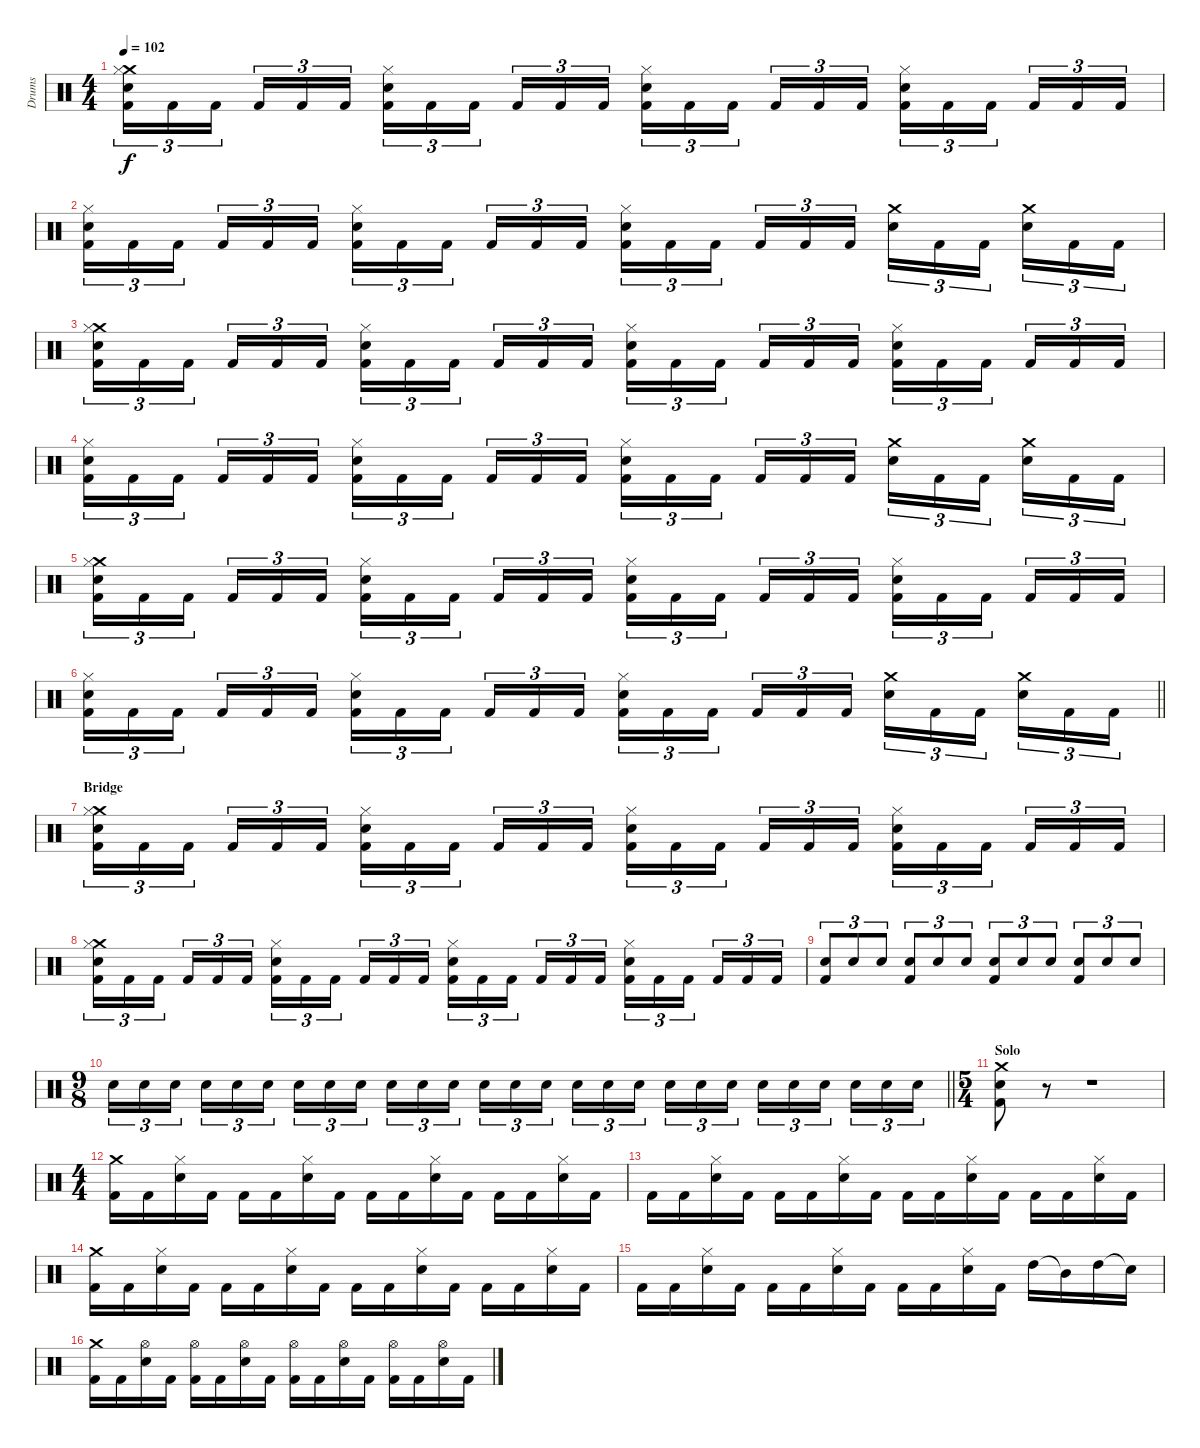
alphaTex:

\track ("Drums" "Drums") {instrument percussion}
\staff {score}
\articulation defaults
\ts (4 4)
\tempo 102
\clef neutral
\ks c
("Crash medium (hit)" "Hi-Hat (closed)" "Snare (hit) 2" "Kick (hit) 2").16{tu (3 2) dy f} "Kick (hit) 2".16{tu (3 2)} "Kick (hit) 2".16{tu (3 2) beam splitsecondary} "Kick (hit) 2".16{tu (3 2)} "Kick (hit) 2".16{tu (3 2)} "Kick (hit) 2".16{tu (3 2)} ("Hi-Hat (closed)" "Snare (hit) 2" "Kick (hit) 2").16{tu (3 2)} "Kick (hit) 2".16{tu (3 2)} "Kick (hit) 2".16{tu (3 2) beam splitsecondary} "Kick (hit) 2".16{tu (3 2)} "Kick (hit) 2".16{tu (3 2)} "Kick (hit) 2".16{tu (3 2)} ("Hi-Hat (closed)" "Snare (hit) 2" "Kick (hit) 2").16{tu (3 2)} "Kick (hit) 2".16{tu (3 2)} "Kick (hit) 2".16{tu (3 2) beam splitsecondary} "Kick (hit) 2".16{tu (3 2)} "Kick (hit) 2".16{tu (3 2)} "Kick (hit) 2".16{tu (3 2)} ("Hi-Hat (closed)" "Snare (hit) 2" "Kick (hit) 2").16{tu (3 2)} "Kick (hit) 2".16{tu (3 2)} "Kick (hit) 2".16{tu (3 2) beam splitsecondary} "Kick (hit) 2".16{tu (3 2)} "Kick (hit) 2".16{tu (3 2)} "Kick (hit) 2".16{tu (3 2)} |
("Hi-Hat (closed)" "Snare (hit) 2" "Kick (hit) 2").16{tu (3 2)} "Kick (hit) 2".16{tu (3 2)} "Kick (hit) 2".16{tu (3 2) beam splitsecondary} "Kick (hit) 2".16{tu (3 2)} "Kick (hit) 2".16{tu (3 2)} "Kick (hit) 2".16{tu (3 2)} ("Hi-Hat (closed)" "Snare (hit) 2" "Kick (hit) 2").16{tu (3 2)} "Kick (hit) 2".16{tu (3 2)} "Kick (hit) 2".16{tu (3 2) beam splitsecondary} "Kick (hit) 2".16{tu (3 2)} "Kick (hit) 2".16{tu (3 2)} "Kick (hit) 2".16{tu (3 2)} ("Hi-Hat (closed)" "Snare (hit) 2" "Kick (hit) 2").16{tu (3 2)} "Kick (hit) 2".16{tu (3 2)} "Kick (hit) 2".16{tu (3 2) beam splitsecondary} "Kick (hit) 2".16{tu (3 2)} "Kick (hit) 2".16{tu (3 2)} "Kick (hit) 2".16{tu (3 2)} ("Crash medium (hit)" "Snare (hit) 2").16{tu (3 2)} "Kick (hit) 2".16{tu (3 2)} "Kick (hit) 2".16{tu (3 2) beam splitsecondary} ("Crash medium (hit)" "Snare (hit) 2").16{tu (3 2)} "Kick (hit) 2".16{tu (3 2)} "Kick (hit) 2".16{tu (3 2)} |
("Crash medium (hit)" "Hi-Hat (closed)" "Snare (hit) 2" "Kick (hit) 2").16{tu (3 2)} "Kick (hit) 2".16{tu (3 2)} "Kick (hit) 2".16{tu (3 2) beam splitsecondary} "Kick (hit) 2".16{tu (3 2)} "Kick (hit) 2".16{tu (3 2)} "Kick (hit) 2".16{tu (3 2)} ("Hi-Hat (closed)" "Snare (hit) 2" "Kick (hit) 2").16{tu (3 2)} "Kick (hit) 2".16{tu (3 2)} "Kick (hit) 2".16{tu (3 2) beam splitsecondary} "Kick (hit) 2".16{tu (3 2)} "Kick (hit) 2".16{tu (3 2)} "Kick (hit) 2".16{tu (3 2)} ("Hi-Hat (closed)" "Snare (hit) 2" "Kick (hit) 2").16{tu (3 2)} "Kick (hit) 2".16{tu (3 2)} "Kick (hit) 2".16{tu (3 2) beam splitsecondary} "Kick (hit) 2".16{tu (3 2)} "Kick (hit) 2".16{tu (3 2)} "Kick (hit) 2".16{tu (3 2)} ("Hi-Hat (closed)" "Snare (hit) 2" "Kick (hit) 2").16{tu (3 2)} "Kick (hit) 2".16{tu (3 2)} "Kick (hit) 2".16{tu (3 2) beam splitsecondary} "Kick (hit) 2".16{tu (3 2)} "Kick (hit) 2".16{tu (3 2)} "Kick (hit) 2".16{tu (3 2)} |
("Hi-Hat (closed)" "Snare (hit) 2" "Kick (hit) 2").16{tu (3 2)} "Kick (hit) 2".16{tu (3 2)} "Kick (hit) 2".16{tu (3 2) beam splitsecondary} "Kick (hit) 2".16{tu (3 2)} "Kick (hit) 2".16{tu (3 2)} "Kick (hit) 2".16{tu (3 2)} ("Hi-Hat (closed)" "Snare (hit) 2" "Kick (hit) 2").16{tu (3 2)} "Kick (hit) 2".16{tu (3 2)} "Kick (hit) 2".16{tu (3 2) beam splitsecondary} "Kick (hit) 2".16{tu (3 2)} "Kick (hit) 2".16{tu (3 2)} "Kick (hit) 2".16{tu (3 2)} ("Hi-Hat (closed)" "Snare (hit) 2" "Kick (hit) 2").16{tu (3 2)} "Kick (hit) 2".16{tu (3 2)} "Kick (hit) 2".16{tu (3 2) beam splitsecondary} "Kick (hit) 2".16{tu (3 2)} "Kick (hit) 2".16{tu (3 2)} "Kick (hit) 2".16{tu (3 2)} ("Crash medium (hit)" "Snare (hit) 2").16{tu (3 2)} "Kick (hit) 2".16{tu (3 2)} "Kick (hit) 2".16{tu (3 2) beam splitsecondary} ("Crash medium (hit)" "Snare (hit) 2").16{tu (3 2)} "Kick (hit) 2".16{tu (3 2)} "Kick (hit) 2".16{tu (3 2)} |
("Crash medium (hit)" "Hi-Hat (closed)" "Snare (hit) 2" "Kick (hit) 2").16{tu (3 2)} "Kick (hit) 2".16{tu (3 2)} "Kick (hit) 2".16{tu (3 2) beam splitsecondary} "Kick (hit) 2".16{tu (3 2)} "Kick (hit) 2".16{tu (3 2)} "Kick (hit) 2".16{tu (3 2)} ("Hi-Hat (closed)" "Snare (hit) 2" "Kick (hit) 2").16{tu (3 2)} "Kick (hit) 2".16{tu (3 2)} "Kick (hit) 2".16{tu (3 2) beam splitsecondary} "Kick (hit) 2".16{tu (3 2)} "Kick (hit) 2".16{tu (3 2)} "Kick (hit) 2".16{tu (3 2)} ("Hi-Hat (closed)" "Snare (hit) 2" "Kick (hit) 2").16{tu (3 2)} "Kick (hit) 2".16{tu (3 2)} "Kick (hit) 2".16{tu (3 2) beam splitsecondary} "Kick (hit) 2".16{tu (3 2)} "Kick (hit) 2".16{tu (3 2)} "Kick (hit) 2".16{tu (3 2)} ("Hi-Hat (closed)" "Snare (hit) 2" "Kick (hit) 2").16{tu (3 2)} "Kick (hit) 2".16{tu (3 2)} "Kick (hit) 2".16{tu (3 2) beam splitsecondary} "Kick (hit) 2".16{tu (3 2)} "Kick (hit) 2".16{tu (3 2)} "Kick (hit) 2".16{tu (3 2)} |
\barLineRight lightlight
("Hi-Hat (closed)" "Snare (hit) 2" "Kick (hit) 2").16{tu (3 2)} "Kick (hit) 2".16{tu (3 2)} "Kick (hit) 2".16{tu (3 2) beam splitsecondary} "Kick (hit) 2".16{tu (3 2)} "Kick (hit) 2".16{tu (3 2)} "Kick (hit) 2".16{tu (3 2)} ("Hi-Hat (closed)" "Snare (hit) 2" "Kick (hit) 2").16{tu (3 2)} "Kick (hit) 2".16{tu (3 2)} "Kick (hit) 2".16{tu (3 2) beam splitsecondary} "Kick (hit) 2".16{tu (3 2)} "Kick (hit) 2".16{tu (3 2)} "Kick (hit) 2".16{tu (3 2)} ("Hi-Hat (closed)" "Snare (hit) 2" "Kick (hit) 2").16{tu (3 2)} "Kick (hit) 2".16{tu (3 2)} "Kick (hit) 2".16{tu (3 2) beam splitsecondary} "Kick (hit) 2".16{tu (3 2)} "Kick (hit) 2".16{tu (3 2)} "Kick (hit) 2".16{tu (3 2)} ("Crash medium (hit)" "Snare (hit) 2").16{tu (3 2)} "Kick (hit) 2".16{tu (3 2)} "Kick (hit) 2".16{tu (3 2) beam splitsecondary} ("Crash medium (hit)" "Snare (hit) 2").16{tu (3 2)} "Kick (hit) 2".16{tu (3 2)} "Kick (hit) 2".16{tu (3 2)} |
\section ("" "Bridge")
("Crash medium (hit)" "Hi-Hat (closed)" "Snare (hit) 2" "Kick (hit) 2").16{tu (3 2)} "Kick (hit) 2".16{tu (3 2)} "Kick (hit) 2".16{tu (3 2) beam splitsecondary} "Kick (hit) 2".16{tu (3 2)} "Kick (hit) 2".16{tu (3 2)} "Kick (hit) 2".16{tu (3 2)} ("Hi-Hat (closed)" "Snare (hit) 2" "Kick (hit) 2").16{tu (3 2)} "Kick (hit) 2".16{tu (3 2)} "Kick (hit) 2".16{tu (3 2) beam splitsecondary} "Kick (hit) 2".16{tu (3 2)} "Kick (hit) 2".16{tu (3 2)} "Kick (hit) 2".16{tu (3 2)} ("Hi-Hat (closed)" "Snare (hit) 2" "Kick (hit) 2").16{tu (3 2)} "Kick (hit) 2".16{tu (3 2)} "Kick (hit) 2".16{tu (3 2) beam splitsecondary} "Kick (hit) 2".16{tu (3 2)} "Kick (hit) 2".16{tu (3 2)} "Kick (hit) 2".16{tu (3 2)} ("Hi-Hat (closed)" "Snare (hit) 2" "Kick (hit) 2").16{tu (3 2)} "Kick (hit) 2".16{tu (3 2)} "Kick (hit) 2".16{tu (3 2) beam splitsecondary} "Kick (hit) 2".16{tu (3 2)} "Kick (hit) 2".16{tu (3 2)} "Kick (hit) 2".16{tu (3 2)} |
("Crash medium (hit)" "Hi-Hat (closed)" "Snare (hit) 2" "Kick (hit) 2").16{tu (3 2)} "Kick (hit) 2".16{tu (3 2)} "Kick (hit) 2".16{tu (3 2) beam splitsecondary} "Kick (hit) 2".16{tu (3 2)} "Kick (hit) 2".16{tu (3 2)} "Kick (hit) 2".16{tu (3 2)} ("Hi-Hat (closed)" "Snare (hit) 2" "Kick (hit) 2").16{tu (3 2)} "Kick (hit) 2".16{tu (3 2)} "Kick (hit) 2".16{tu (3 2) beam splitsecondary} "Kick (hit) 2".16{tu (3 2)} "Kick (hit) 2".16{tu (3 2)} "Kick (hit) 2".16{tu (3 2)} ("Hi-Hat (closed)" "Snare (hit) 2" "Kick (hit) 2").16{tu (3 2)} "Kick (hit) 2".16{tu (3 2)} "Kick (hit) 2".16{tu (3 2) beam splitsecondary} "Kick (hit) 2".16{tu (3 2)} "Kick (hit) 2".16{tu (3 2)} "Kick (hit) 2".16{tu (3 2)} ("Hi-Hat (closed)" "Snare (hit) 2" "Kick (hit) 2").16{tu (3 2)} "Kick (hit) 2".16{tu (3 2)} "Kick (hit) 2".16{tu (3 2) beam splitsecondary} "Kick (hit) 2".16{tu (3 2)} "Kick (hit) 2".16{tu (3 2)} "Kick (hit) 2".16{tu (3 2)} |
("Kick (hit) 2" "Snare (hit) 2").8{tu (3 2)} "Snare (hit) 2".8{tu (3 2)} "Snare (hit) 2".8{tu (3 2)} ("Kick (hit) 2" "Snare (hit) 2").8{tu (3 2)} "Snare (hit) 2".8{tu (3 2)} "Snare (hit) 2".8{tu (3 2)} ("Kick (hit) 2" "Snare (hit) 2").8{tu (3 2)} "Snare (hit) 2".8{tu (3 2)} "Snare (hit) 2".8{tu (3 2)} ("Kick (hit) 2" "Snare (hit) 2").8{tu (3 2)} "Snare (hit) 2".8{tu (3 2)} "Snare (hit) 2".8{tu (3 2)} |
\ts (9 8)
\barLineRight lightlight "Snare (hit) 2".16{tu (3 2)} "Snare (hit) 2".16{tu (3 2)} "Snare (hit) 2".16{tu (3 2) beam splitsecondary} "Snare (hit) 2".16{tu (3 2)} "Snare (hit) 2".16{tu (3 2)} "Snare (hit) 2".16{tu (3 2) beam splitsecondary} "Snare (hit) 2".16{tu (3 2)} "Snare (hit) 2".16{tu (3 2)} "Snare (hit) 2".16{tu (3 2)} "Snare (hit) 2".16{tu (3 2)} "Snare (hit) 2".16{tu (3 2)} "Snare (hit) 2".16{tu (3 2) beam splitsecondary} "Snare (hit) 2".16{tu (3 2)} "Snare (hit) 2".16{tu (3 2)} "Snare (hit) 2".16{tu (3 2) beam splitsecondary} "Snare (hit) 2".16{tu (3 2)} "Snare (hit) 2".16{tu (3 2)} "Snare (hit) 2".16{tu (3 2)} "Snare (hit) 2".16{tu (3 2)} "Snare (hit) 2".16{tu (3 2)} "Snare (hit) 2".16{tu (3 2) beam splitsecondary} "Snare (hit) 2".16{tu (3 2)} "Snare (hit) 2".16{tu (3 2)} "Snare (hit) 2".16{tu (3 2) beam splitsecondary} "Snare (hit) 2".16{tu (3 2)} "Snare (hit) 2".16{tu (3 2)} "Snare (hit) 2".16{tu (3 2)}
|
\ts (5 4)
\section ("" "Solo")
("Crash medium (hit)" "Snare (hit) 2" "Kick (hit) 2").8 r.8 r.1 |
\ts (4 4)
("Crash medium (hit)" "Kick (hit) 2").16 "Kick (hit) 2".16 ("Hi-Hat (closed)" "Snare (hit) 2").16 "Kick (hit) 2".16 "Kick (hit) 2".16 "Kick (hit) 2".16 ("Hi-Hat (closed)" "Snare (hit) 2").16 "Kick (hit) 2".16 "Kick (hit) 2".16 "Kick (hit) 2".16 ("Hi-Hat (closed)" "Snare (hit) 2").16 "Kick (hit) 2".16 "Kick (hit) 2".16 "Kick (hit) 2".16 ("Hi-Hat (closed)" "Snare (hit) 2").16 "Kick (hit) 2".16 |
"Kick (hit) 2".16 "Kick (hit) 2".16 ("Hi-Hat (closed)" "Snare (hit) 2").16 "Kick (hit) 2".16 "Kick (hit) 2".16 "Kick (hit) 2".16 ("Hi-Hat (closed)" "Snare (hit) 2").16 "Kick (hit) 2".16 "Kick (hit) 2".16 "Kick (hit) 2".16 ("Hi-Hat (closed)" "Snare (hit) 2").16 "Kick (hit) 2".16 "Kick (hit) 2".16 "Kick (hit) 2".16 ("Hi-Hat (closed)" "Snare (hit) 2").16 "Kick (hit) 2".16 |
("Crash medium (hit)" "Kick (hit) 2").16 "Kick (hit) 2".16 ("Hi-Hat (closed)" "Snare (hit) 2").16 "Kick (hit) 2".16 "Kick (hit) 2".16 "Kick (hit) 2".16 ("Hi-Hat (closed)" "Snare (hit) 2").16 "Kick (hit) 2".16 "Kick (hit) 2".16 "Kick (hit) 2".16 ("Hi-Hat (closed)" "Snare (hit) 2").16 "Kick (hit) 2".16 "Kick (hit) 2".16 "Kick (hit) 2".16 ("Hi-Hat (closed)" "Snare (hit) 2").16 "Kick (hit) 2".16 |
"Kick (hit) 2".16 "Kick (hit) 2".16 ("Hi-Hat (closed)" "Snare (hit) 2").16 "Kick (hit) 2".16 "Kick (hit) 2".16 "Kick (hit) 2".16 ("Hi-Hat (closed)" "Snare (hit) 2").16 "Kick (hit) 2".16 "Kick (hit) 2".16 "Kick (hit) 2".16 ("Hi-Hat (closed)" "Snare (hit) 2").16 "Kick (hit) 2".16 "High Tom (hit)".16 "Mid Tom (hit)"{t}.16 "High Tom (hit)".16 "Snare (hit)"{t}.16 |
("Crash medium (hit)" "Kick (hit) 2").16 "Kick (hit) 2".16 ("Hi-Hat (open)" "Snare (hit) 2").16 "Kick (hit) 2".16 ("Hi-Hat (open)" "Kick (hit) 2").16 "Kick (hit) 2".16 ("Hi-Hat (open)" "Snare (hit) 2").16 "Kick (hit) 2".16 ("Hi-Hat (open)" "Kick (hit) 2").16 "Kick (hit) 2".16 ("Hi-Hat (open)" "Snare (hit) 2").16 "Kick (hit) 2".16 ("Hi-Hat (open)" "Kick (hit) 2").16 "Kick (hit) 2".16 ("Hi-Hat (open)" "Snare (hit) 2").16 "Kick (hit) 2".16
